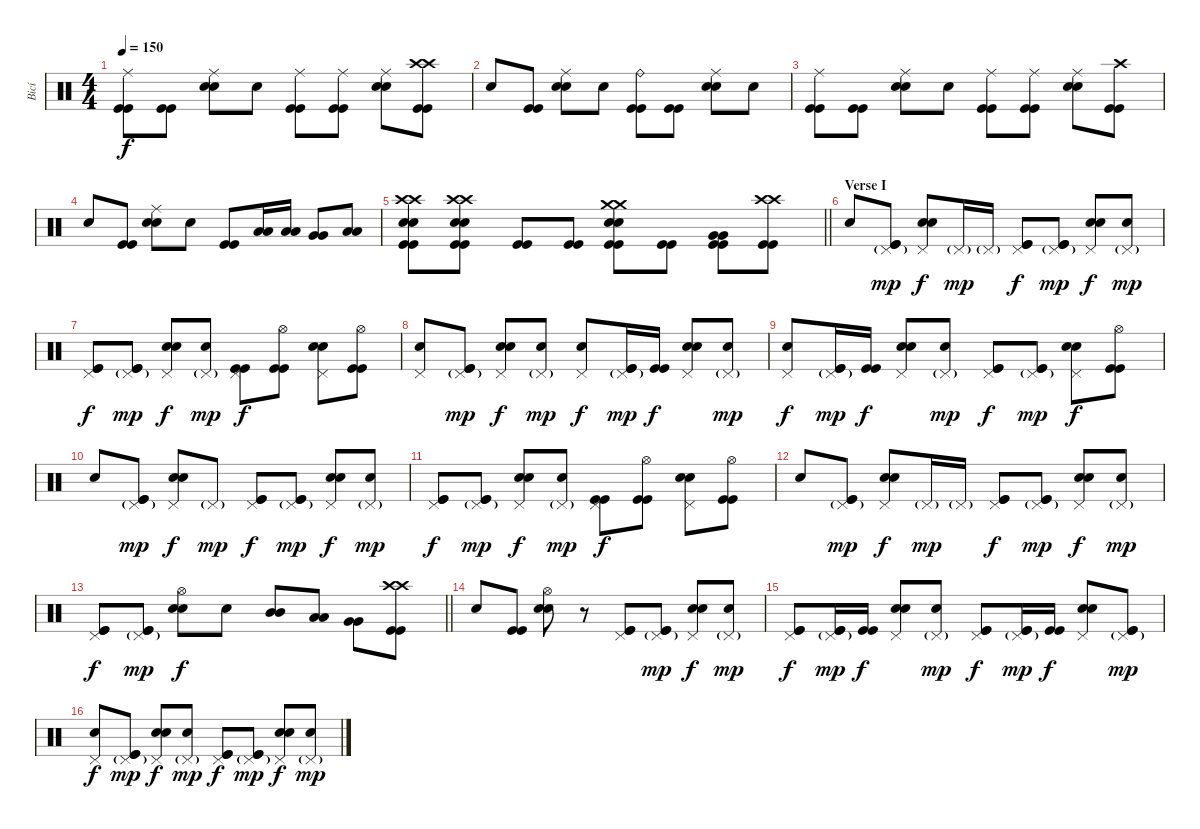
\track ("Bicí" "Bicí") {instrument percussion}
\staff {score}
\articulation defaults
\ts (4 4)
\tempo 150
\clef neutral
\ks c
("Ride (middle)" "Kick (hit)" "Kick (hit)").8{dy f} ("Kick (hit)" "Kick (hit)").8 ("Ride (middle)" "Electric Snare (hit)" "Electric Snare (hit)").8 "Snare (hit)".8 ("Ride (middle)" "Kick (hit)" "Kick (hit)").8 ("Ride (middle)" "Kick (hit)" "Kick (hit)").8 ("Ride (middle)" "Electric Snare (hit)" "Electric Snare (hit)").8 ("Crash high (hit)" "Crash high (hit)" "Kick (hit)" "Kick (hit)").8 |
"Snare (hit)".8 ("Kick (hit)" "Kick (hit)").8 ("Ride (middle)" "Electric Snare (hit)" "Electric Snare (hit)").8 "Snare (hit)".8 ("Ride (bell)" "Kick (hit)" "Kick (hit)").8 ("Kick (hit)" "Kick (hit)").8 ("Ride (middle)" "Electric Snare (hit)" "Electric Snare (hit)").8 "Snare (hit)".8 |
("Ride (middle)" "Kick (hit)" "Kick (hit)").8 ("Kick (hit)" "Kick (hit)").8 ("Ride (middle)" "Electric Snare (hit)" "Electric Snare (hit)").8 "Snare (hit)".8 ("Ride (middle)" "Kick (hit)" "Kick (hit)").8 ("Ride (middle)" "Kick (hit)" "Kick (hit)").8 ("Ride (middle)" "Electric Snare (hit)" "Electric Snare (hit)").8 ("Crash high (hit)" "Kick (hit)" "Kick (hit)").8 |
"Snare (hit)".8 ("Kick (hit)" "Kick (hit)").8 ("Ride (middle)" "Electric Snare (hit)" "Electric Snare (hit)").8 "Snare (hit)".8 ("Kick (hit)" "Kick (hit)").8 ("Low Tom (hit)" "Low Tom (hit)").16 ("Low Tom (hit)" "Low Tom (hit)").16 ("Very Low Tom (hit)" "Very Low Tom (hit)").8 ("Low Floor Tom (hit)" "Low Floor Tom (hit)").8 |
\barLineRight lightlight
("Crash high (hit)" "Crash high (hit)" "Electric Snare (hit)" "Electric Snare (hit)" "Kick (hit)" "Kick (hit)").8 ("Crash high (hit)" "Crash high (hit)" "Electric Snare (hit)" "Electric Snare (hit)" "Kick (hit)" "Kick (hit)").8 ("Kick (hit)" "Kick (hit)").8 ("Kick (hit)" "Kick (hit)").8 ("Crash medium (hit)" "Crash medium (hit)" "Electric Snare (hit)" "Electric Snare (hit)" "Kick (hit)" "Kick (hit)").8 ("Kick (hit)" "Kick (hit)").8 ("Very Low Tom (hit)" "Very Low Tom (hit)" "Kick (hit)" "Kick (hit)").8 ("Crash high (hit)" "Crash high (hit)" "Kick (hit)" "Kick (hit)").8 |
\section ("" "Verse I")
"Snare (hit)".8 ("Pedal Hi-Hat (hit)"{g} "Kick (hit)" "Kick (hit)").8{dy mp} ("Pedal Hi-Hat (hit)" "Electric Snare (hit)" "Electric Snare (hit)").8{dy f} "Pedal Hi-Hat (hit)"{g}.16{dy mp} "Pedal Hi-Hat (hit)"{g}.16 ("Pedal Hi-Hat (hit)" "Kick (hit)" "Kick (hit)").8{dy f} ("Pedal Hi-Hat (hit)"{g} "Kick (hit)" "Kick (hit)").8{dy mp} ("Pedal Hi-Hat (hit)" "Electric Snare (hit)" "Electric Snare (hit)").8{dy f} ("Pedal Hi-Hat (hit)"{g} "Snare (hit)").8{dy mp} |
("Pedal Hi-Hat (hit)" "Kick (hit)" "Kick (hit)").8{dy f} ("Pedal Hi-Hat (hit)"{g} "Kick (hit)" "Kick (hit)").8{dy mp} ("Pedal Hi-Hat (hit)" "Electric Snare (hit)" "Electric Snare (hit)").8{dy f} ("Pedal Hi-Hat (hit)"{g} "Snare (hit)").8{dy mp} ("Pedal Hi-Hat (hit)" "Kick (hit)" "Kick (hit)").8{dy f} ("Hi-Hat (open)" "Kick (hit)" "Kick (hit)").8 ("Pedal Hi-Hat (hit)" "Electric Snare (hit)" "Electric Snare (hit)").8 ("Hi-Hat (open)" "Kick (hit)" "Kick (hit)").8 |
("Pedal Hi-Hat (hit)" "Snare (hit)").8 ("Pedal Hi-Hat (hit)"{g} "Kick (hit)" "Kick (hit)").8{dy mp} ("Pedal Hi-Hat (hit)" "Electric Snare (hit)" "Electric Snare (hit)").8{dy f} ("Pedal Hi-Hat (hit)"{g} "Snare (hit)").8{dy mp} ("Pedal Hi-Hat (hit)" "Snare (hit)").8{dy f} ("Pedal Hi-Hat (hit)"{g} "Kick (hit)" "Kick (hit)").16{dy mp} ("Kick (hit)" "Kick (hit)").16{dy f} ("Pedal Hi-Hat (hit)" "Electric Snare (hit)" "Electric Snare (hit)").8 ("Pedal Hi-Hat (hit)"{g} "Snare (hit)").8{dy mp} |
("Pedal Hi-Hat (hit)" "Snare (hit)").8{dy f} ("Pedal Hi-Hat (hit)"{g} "Kick (hit)" "Kick (hit)").16{dy mp} ("Kick (hit)" "Kick (hit)").16{dy f} ("Pedal Hi-Hat (hit)" "Electric Snare (hit)" "Electric Snare (hit)").8 ("Pedal Hi-Hat (hit)"{g} "Snare (hit)").8{dy mp} ("Pedal Hi-Hat (hit)" "Kick (hit)" "Kick (hit)").8{dy f} ("Pedal Hi-Hat (hit)"{g} "Kick (hit)" "Kick (hit)").8{dy mp} ("Pedal Hi-Hat (hit)" "Electric Snare (hit)" "Electric Snare (hit)").8{dy f} ("Hi-Hat (open)" "Kick (hit)" "Kick (hit)").8 |
"Snare (hit)".8 ("Pedal Hi-Hat (hit)"{g} "Kick (hit)" "Kick (hit)").8{dy mp} ("Pedal Hi-Hat (hit)" "Electric Snare (hit)" "Electric Snare (hit)").8{dy f} "Pedal Hi-Hat (hit)"{g}.8{dy mp} ("Pedal Hi-Hat (hit)" "Kick (hit)" "Kick (hit)").8{dy f} ("Pedal Hi-Hat (hit)"{g} "Kick (hit)" "Kick (hit)").8{dy mp} ("Pedal Hi-Hat (hit)" "Electric Snare (hit)" "Electric Snare (hit)").8{dy f} ("Pedal Hi-Hat (hit)"{g} "Snare (hit)").8{dy mp} |
("Pedal Hi-Hat (hit)" "Kick (hit)" "Kick (hit)").8{dy f} ("Pedal Hi-Hat (hit)"{g} "Kick (hit)" "Kick (hit)").8{dy mp} ("Pedal Hi-Hat (hit)" "Electric Snare (hit)" "Electric Snare (hit)").8{dy f} ("Pedal Hi-Hat (hit)"{g} "Snare (hit)").8{dy mp} ("Pedal Hi-Hat (hit)" "Kick (hit)" "Kick (hit)").8{dy f} ("Hi-Hat (open)" "Kick (hit)" "Kick (hit)").8 ("Pedal Hi-Hat (hit)" "Electric Snare (hit)" "Electric Snare (hit)").8 ("Hi-Hat (open)" "Kick (hit)" "Kick (hit)").8 |
"Snare (hit)".8 ("Pedal Hi-Hat (hit)"{g} "Kick (hit)" "Kick (hit)").8{dy mp} ("Pedal Hi-Hat (hit)" "Electric Snare (hit)" "Electric Snare (hit)").8{dy f} "Pedal Hi-Hat (hit)"{g}.16{dy mp} "Pedal Hi-Hat (hit)"{g}.16 ("Pedal Hi-Hat (hit)" "Kick (hit)" "Kick (hit)").8{dy f} ("Pedal Hi-Hat (hit)"{g} "Kick (hit)" "Kick (hit)").8{dy mp} ("Pedal Hi-Hat (hit)" "Electric Snare (hit)" "Electric Snare (hit)").8{dy f} ("Pedal Hi-Hat (hit)"{g} "Snare (hit)").8{dy mp} |
\barLineRight lightlight
("Pedal Hi-Hat (hit)" "Kick (hit)" "Kick (hit)").8{dy f} ("Pedal Hi-Hat (hit)"{g} "Kick (hit)" "Kick (hit)").8{dy mp} ("Hi-Hat (open)" "Electric Snare (hit)" "Electric Snare (hit)").8{dy f} "Snare (hit)".8 ("Mid Tom (hit)" "Mid Tom (hit)").8 ("Low Tom (hit)" "Low Tom (hit)").8 ("Very Low Tom (hit)" "Very Low Tom (hit)").8 ("Crash high (hit)" "Crash high (hit)" "Kick (hit)" "Kick (hit)").8 |
"Snare (hit)".8 ("Kick (hit)" "Kick (hit)").8 ("Hi-Hat (open)" "Electric Snare (hit)" "Electric Snare (hit)").8 r.8 ("Pedal Hi-Hat (hit)" "Kick (hit)" "Kick (hit)").8 ("Pedal Hi-Hat (hit)"{g} "Kick (hit)" "Kick (hit)").8{dy mp} ("Pedal Hi-Hat (hit)" "Electric Snare (hit)" "Electric Snare (hit)").8{dy f} ("Pedal Hi-Hat (hit)"{g} "Snare (hit)").8{dy mp} |
("Pedal Hi-Hat (hit)" "Kick (hit)" "Kick (hit)").8{dy f} ("Pedal Hi-Hat (hit)"{g} "Kick (hit)" "Kick (hit)").16{dy mp} ("Kick (hit)" "Kick (hit)").16{dy f} ("Pedal Hi-Hat (hit)" "Electric Snare (hit)" "Electric Snare (hit)").8 ("Pedal Hi-Hat (hit)"{g} "Snare (hit)").8{dy mp} ("Pedal Hi-Hat (hit)" "Kick (hit)" "Kick (hit)").8{dy f} ("Pedal Hi-Hat (hit)"{g} "Kick (hit)" "Kick (hit)").16{dy mp} ("Kick (hit)" "Kick (hit)").16{dy f} ("Pedal Hi-Hat (hit)" "Electric Snare (hit)" "Electric Snare (hit)").8 ("Pedal Hi-Hat (hit)"{g} "Kick (hit)" "Kick (hit)").8{dy mp} |
("Pedal Hi-Hat (hit)" "Snare (hit)").8{dy f} ("Pedal Hi-Hat (hit)"{g} "Kick (hit)" "Kick (hit)").8{dy mp} ("Pedal Hi-Hat (hit)" "Electric Snare (hit)" "Electric Snare (hit)").8{dy f} ("Pedal Hi-Hat (hit)"{g} "Snare (hit)").8{dy mp} ("Pedal Hi-Hat (hit)" "Kick (hit)" "Kick (hit)").8{dy f} ("Pedal Hi-Hat (hit)"{g} "Kick (hit)" "Kick (hit)").8{dy mp} ("Pedal Hi-Hat (hit)" "Electric Snare (hit)" "Electric Snare (hit)").8{dy f} ("Pedal Hi-Hat (hit)"{g} "Snare (hit)").8{dy mp}
